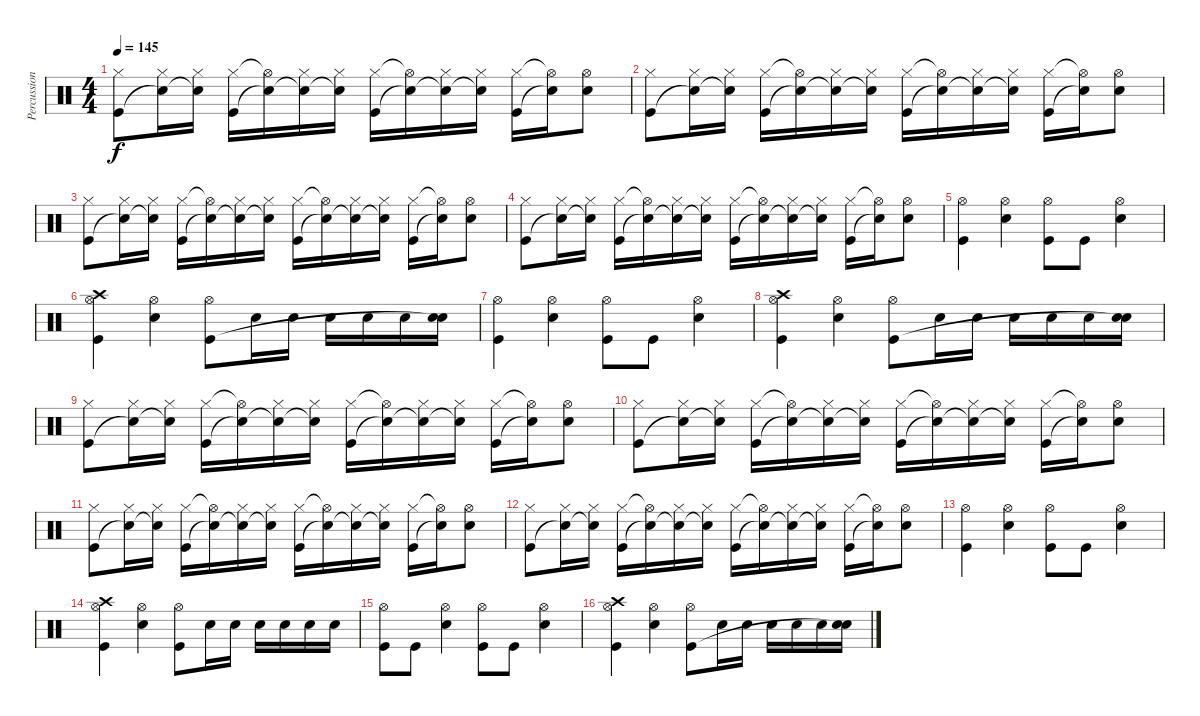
\track ("Percussion" "Percussion") {instrument percussion}
\staff {score}
\articulation defaults
\ts (4 4)
\tempo 145
\clef neutral
\ks c
("Hi-Hat (closed)" "Kick (hit)").8{dy f} ("Hi-Hat (closed)" "Snare (hit)"{t}).16 ("Hi-Hat (closed)" "Snare (hit)"{t}).16 ("Hi-Hat (closed)" "Kick (hit)").16 ("Hi-Hat (open)"{t} "Snare (hit)"{t}).16 ("Hi-Hat (closed)" "Snare (hit)"{t}).16 ("Hi-Hat (closed)" "Snare (hit)"{t}).16 ("Hi-Hat (closed)" "Kick (hit)").16 ("Hi-Hat (open)"{t} "Snare (hit)"{t}).16 ("Hi-Hat (closed)" "Snare (hit)"{t}).16 ("Hi-Hat (closed)" "Snare (hit)"{t}).16 ("Hi-Hat (closed)" "Kick (hit)").16 ("Hi-Hat (open)"{t} "Snare (hit)"{t}).16 ("Hi-Hat (open)" "Electric Snare (hit)").8 |
("Hi-Hat (closed)" "Kick (hit)").8 ("Hi-Hat (closed)" "Snare (hit)"{t}).16 ("Hi-Hat (closed)" "Snare (hit)"{t}).16 ("Hi-Hat (closed)" "Kick (hit)").16 ("Hi-Hat (open)"{t} "Snare (hit)"{t}).16 ("Hi-Hat (closed)" "Snare (hit)"{t}).16 ("Hi-Hat (closed)" "Snare (hit)"{t}).16 ("Hi-Hat (closed)" "Kick (hit)").16 ("Hi-Hat (open)"{t} "Snare (hit)"{t}).16 ("Hi-Hat (closed)" "Snare (hit)"{t}).16 ("Hi-Hat (closed)" "Snare (hit)"{t}).16 ("Hi-Hat (closed)" "Kick (hit)").16 ("Hi-Hat (open)"{t} "Snare (hit)"{t}).16 ("Hi-Hat (open)" "Electric Snare (hit)").8 |
("Hi-Hat (closed)" "Kick (hit)").8 ("Hi-Hat (closed)" "Snare (hit)"{t}).16 ("Hi-Hat (closed)" "Snare (hit)"{t}).16 ("Hi-Hat (closed)" "Kick (hit)").16 ("Hi-Hat (open)"{t} "Snare (hit)"{t}).16 ("Hi-Hat (closed)" "Snare (hit)"{t}).16 ("Hi-Hat (closed)" "Snare (hit)"{t}).16 ("Hi-Hat (closed)" "Kick (hit)").16 ("Hi-Hat (open)"{t} "Snare (hit)"{t}).16 ("Hi-Hat (closed)" "Snare (hit)"{t}).16 ("Hi-Hat (closed)" "Snare (hit)"{t}).16 ("Hi-Hat (closed)" "Kick (hit)").16 ("Hi-Hat (open)"{t} "Snare (hit)"{t}).16 ("Hi-Hat (open)" "Electric Snare (hit)").8 |
("Hi-Hat (closed)" "Kick (hit)").8 ("Hi-Hat (closed)" "Snare (hit)"{t}).16 ("Hi-Hat (closed)" "Snare (hit)"{t}).16 ("Hi-Hat (closed)" "Kick (hit)").16 ("Hi-Hat (open)"{t} "Snare (hit)"{t}).16 ("Hi-Hat (closed)" "Snare (hit)"{t}).16 ("Hi-Hat (closed)" "Snare (hit)"{t}).16 ("Hi-Hat (closed)" "Kick (hit)").16 ("Hi-Hat (open)"{t} "Snare (hit)"{t}).16 ("Hi-Hat (closed)" "Snare (hit)"{t}).16 ("Hi-Hat (closed)" "Snare (hit)"{t}).16 ("Hi-Hat (closed)" "Kick (hit)").16 ("Hi-Hat (open)"{t} "Snare (hit)"{t}).16 ("Hi-Hat (open)" "Electric Snare (hit)").8 |
("Kick (hit)" "Hi-Hat (open)").4 ("Hi-Hat (open)" "Snare (hit) 2").4 ("Hi-Hat (open)" "Kick (hit)").8 "Kick (hit)".8 ("Hi-Hat (open)" "Snare (hit) 2").4 |
("Kick (hit)" "Hi-Hat (open)" "Crash high (hit)").4 ("Hi-Hat (open)" "Snare (hit) 2").4 ("Hi-Hat (open)" "Kick (hit)").8 "Snare (hit) 2".16 "Snare (hit) 2".16 "Snare (hit) 2".16 "Snare (hit) 2".16 "Snare (hit) 2".16 ("Snare (hit) 2" "Snare (hit)"{t}).16 |
("Kick (hit)" "Hi-Hat (open)").4 ("Hi-Hat (open)" "Snare (hit) 2").4 ("Hi-Hat (open)" "Kick (hit)").8 "Kick (hit)".8 ("Hi-Hat (open)" "Snare (hit) 2").4 |
("Kick (hit)" "Hi-Hat (open)" "Crash high (hit)").4 ("Hi-Hat (open)" "Snare (hit) 2").4 ("Hi-Hat (open)" "Kick (hit)").8 "Snare (hit) 2".16 "Snare (hit) 2".16 "Snare (hit) 2".16 "Snare (hit) 2".16 "Snare (hit) 2".16 ("Snare (hit) 2" "Snare (hit)"{t}).16 |
("Hi-Hat (closed)" "Kick (hit)").8 ("Hi-Hat (closed)" "Snare (hit)"{t}).16 ("Hi-Hat (closed)" "Snare (hit)"{t}).16 ("Hi-Hat (closed)" "Kick (hit)").16 ("Hi-Hat (open)"{t} "Snare (hit)"{t}).16 ("Hi-Hat (closed)" "Snare (hit)"{t}).16 ("Hi-Hat (closed)" "Snare (hit)"{t}).16 ("Hi-Hat (closed)" "Kick (hit)").16 ("Hi-Hat (open)"{t} "Snare (hit)"{t}).16 ("Hi-Hat (closed)" "Snare (hit)"{t}).16 ("Hi-Hat (closed)" "Snare (hit)"{t}).16 ("Hi-Hat (closed)" "Kick (hit)").16 ("Hi-Hat (open)"{t} "Snare (hit)"{t}).16 ("Hi-Hat (open)" "Electric Snare (hit)").8 |
("Hi-Hat (closed)" "Kick (hit)").8 ("Hi-Hat (closed)" "Snare (hit)"{t}).16 ("Hi-Hat (closed)" "Snare (hit)"{t}).16 ("Hi-Hat (closed)" "Kick (hit)").16 ("Hi-Hat (open)"{t} "Snare (hit)"{t}).16 ("Hi-Hat (closed)" "Snare (hit)"{t}).16 ("Hi-Hat (closed)" "Snare (hit)"{t}).16 ("Hi-Hat (closed)" "Kick (hit)").16 ("Hi-Hat (open)"{t} "Snare (hit)"{t}).16 ("Hi-Hat (closed)" "Snare (hit)"{t}).16 ("Hi-Hat (closed)" "Snare (hit)"{t}).16 ("Hi-Hat (closed)" "Kick (hit)").16 ("Hi-Hat (open)"{t} "Snare (hit)"{t}).16 ("Hi-Hat (open)" "Electric Snare (hit)").8 |
("Hi-Hat (closed)" "Kick (hit)").8 ("Hi-Hat (closed)" "Snare (hit)"{t}).16 ("Hi-Hat (closed)" "Snare (hit)"{t}).16 ("Hi-Hat (closed)" "Kick (hit)").16 ("Hi-Hat (open)"{t} "Snare (hit)"{t}).16 ("Hi-Hat (closed)" "Snare (hit)"{t}).16 ("Hi-Hat (closed)" "Snare (hit)"{t}).16 ("Hi-Hat (closed)" "Kick (hit)").16 ("Hi-Hat (open)"{t} "Snare (hit)"{t}).16 ("Hi-Hat (closed)" "Snare (hit)"{t}).16 ("Hi-Hat (closed)" "Snare (hit)"{t}).16 ("Hi-Hat (closed)" "Kick (hit)").16 ("Hi-Hat (open)"{t} "Snare (hit)"{t}).16 ("Hi-Hat (open)" "Electric Snare (hit)").8 |
("Hi-Hat (closed)" "Kick (hit)").8 ("Hi-Hat (closed)" "Snare (hit)"{t}).16 ("Hi-Hat (closed)" "Snare (hit)"{t}).16 ("Hi-Hat (closed)" "Kick (hit)").16 ("Hi-Hat (open)"{t} "Snare (hit)"{t}).16 ("Hi-Hat (closed)" "Snare (hit)"{t}).16 ("Hi-Hat (closed)" "Snare (hit)"{t}).16 ("Hi-Hat (closed)" "Kick (hit)").16 ("Hi-Hat (open)"{t} "Snare (hit)"{t}).16 ("Hi-Hat (closed)" "Snare (hit)"{t}).16 ("Hi-Hat (closed)" "Snare (hit)"{t}).16 ("Hi-Hat (closed)" "Kick (hit)").16 ("Hi-Hat (open)"{t} "Snare (hit)"{t}).16 ("Hi-Hat (open)" "Electric Snare (hit)").8 |
("Kick (hit)" "Hi-Hat (open)").4 ("Hi-Hat (open)" "Snare (hit) 2").4 ("Hi-Hat (open)" "Kick (hit)").8 "Kick (hit)".8 ("Hi-Hat (open)" "Snare (hit) 2").4 |
("Kick (hit)" "Hi-Hat (open)" "Crash high (hit)").4 ("Hi-Hat (open)" "Snare (hit) 2").4 ("Hi-Hat (open)" "Kick (hit)").8 "Snare (hit) 2".16 "Snare (hit) 2".16 "Snare (hit) 2".16 "Snare (hit) 2".16 "Snare (hit) 2".16 "Snare (hit) 2".16 |
("Hi-Hat (open)" "Kick (hit)").8 "Kick (hit)".8 ("Hi-Hat (open)" "Snare (hit) 2").4 ("Hi-Hat (open)" "Kick (hit)").8 "Kick (hit)".8 ("Hi-Hat (open)" "Snare (hit) 2").4 |
("Kick (hit)" "Hi-Hat (open)" "Crash high (hit)").4 ("Hi-Hat (open)" "Snare (hit) 2").4 ("Hi-Hat (open)" "Kick (hit)").8 "Snare (hit) 2".16 "Snare (hit) 2".16 "Snare (hit) 2".16 "Snare (hit) 2".16 "Snare (hit) 2".16 ("Snare (hit) 2" "Snare (hit)"{t}).16
